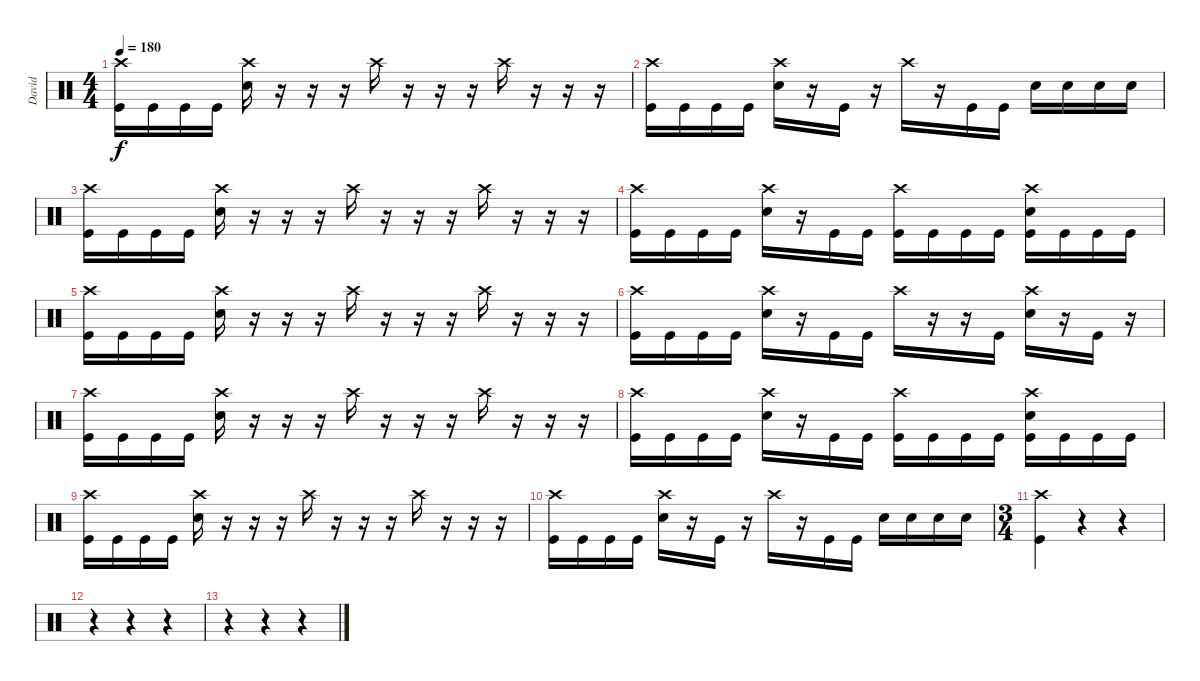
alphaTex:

\track ("David" "David") {instrument percussion}
\staff {score}
\articulation defaults
\ts (4 4)
\tempo 180
\clef neutral
\ks c
("Crash high (hit)" "Kick (hit)").16{dy f} "Kick (hit)".16 "Kick (hit)".16 "Kick (hit)".16 ("Crash high (hit)" "Electric Snare (hit)").16 r.16 r.16 r.16 "Crash high (hit)".16 r.16 r.16 r.16 "Crash high (hit)".16 r.16 r.16 r.16 |
("Crash high (hit)" "Kick (hit)").16 "Kick (hit)".16 "Kick (hit)".16 "Kick (hit)".16 ("Crash high (hit)" "Electric Snare (hit)").16 r.16 "Kick (hit)".16 r.16 "Crash high (hit)".16 r.16 "Kick (hit)".16 "Kick (hit)".16 "Electric Snare (hit)".16 "Electric Snare (hit)".16 "Electric Snare (hit)".16 "Electric Snare (hit)".16 |
("Crash high (hit)" "Kick (hit)").16 "Kick (hit)".16 "Kick (hit)".16 "Kick (hit)".16 ("Crash high (hit)" "Electric Snare (hit)").16 r.16 r.16 r.16 "Crash high (hit)".16 r.16 r.16 r.16 "Crash high (hit)".16 r.16 r.16 r.16 |
("Crash high (hit)" "Kick (hit)").16 "Kick (hit)".16 "Kick (hit)".16 "Kick (hit)".16 ("Crash high (hit)" "Electric Snare (hit)").16 r.16 "Kick (hit)".16 "Kick (hit)".16 ("Crash high (hit)" "Kick (hit)").16 "Kick (hit)".16 "Kick (hit)".16 "Kick (hit)".16 ("Crash high (hit)" "Electric Snare (hit)" "Kick (hit)").16 "Kick (hit)".16 "Kick (hit)".16 "Kick (hit)".16 |
("Crash high (hit)" "Kick (hit)").16 "Kick (hit)".16 "Kick (hit)".16 "Kick (hit)".16 ("Crash high (hit)" "Electric Snare (hit)").16 r.16 r.16 r.16 "Crash high (hit)".16 r.16 r.16 r.16 "Crash high (hit)".16 r.16 r.16 r.16 |
("Crash high (hit)" "Kick (hit)").16 "Kick (hit)".16 "Kick (hit)".16 "Kick (hit)".16 ("Crash high (hit)" "Electric Snare (hit)").16 r.16 "Kick (hit)".16 "Kick (hit)".16 "Crash high (hit)".16 r.16 r.16 "Kick (hit)".16 ("Crash high (hit)" "Electric Snare (hit)").16 r.16 "Kick (hit)".16 r.16 |
("Crash high (hit)" "Kick (hit)").16 "Kick (hit)".16 "Kick (hit)".16 "Kick (hit)".16 ("Crash high (hit)" "Electric Snare (hit)").16 r.16 r.16 r.16 "Crash high (hit)".16 r.16 r.16 r.16 "Crash high (hit)".16 r.16 r.16 r.16 |
("Crash high (hit)" "Kick (hit)").16 "Kick (hit)".16 "Kick (hit)".16 "Kick (hit)".16 ("Crash high (hit)" "Electric Snare (hit)").16 r.16 "Kick (hit)".16 "Kick (hit)".16 ("Crash high (hit)" "Kick (hit)").16 "Kick (hit)".16 "Kick (hit)".16 "Kick (hit)".16 ("Crash high (hit)" "Electric Snare (hit)" "Kick (hit)").16 "Kick (hit)".16 "Kick (hit)".16 "Kick (hit)".16 |
("Crash high (hit)" "Kick (hit)").16 "Kick (hit)".16 "Kick (hit)".16 "Kick (hit)".16 ("Crash high (hit)" "Electric Snare (hit)").16 r.16 r.16 r.16 "Crash high (hit)".16 r.16 r.16 r.16 "Crash high (hit)".16 r.16 r.16 r.16 |
("Crash high (hit)" "Kick (hit)").16 "Kick (hit)".16 "Kick (hit)".16 "Kick (hit)".16 ("Crash high (hit)" "Electric Snare (hit)").16 r.16 "Kick (hit)".16 r.16 "Crash high (hit)".16 r.16 "Kick (hit)".16 "Kick (hit)".16 "Electric Snare (hit)".16 "Electric Snare (hit)".16 "Electric Snare (hit)".16 "Electric Snare (hit)".16 |
\ts (3 4)
("Crash high (hit)" "Kick (hit)").4 r.4 r.4 |
r.4 r.4 r.4 |
r.4 r.4 r.4
